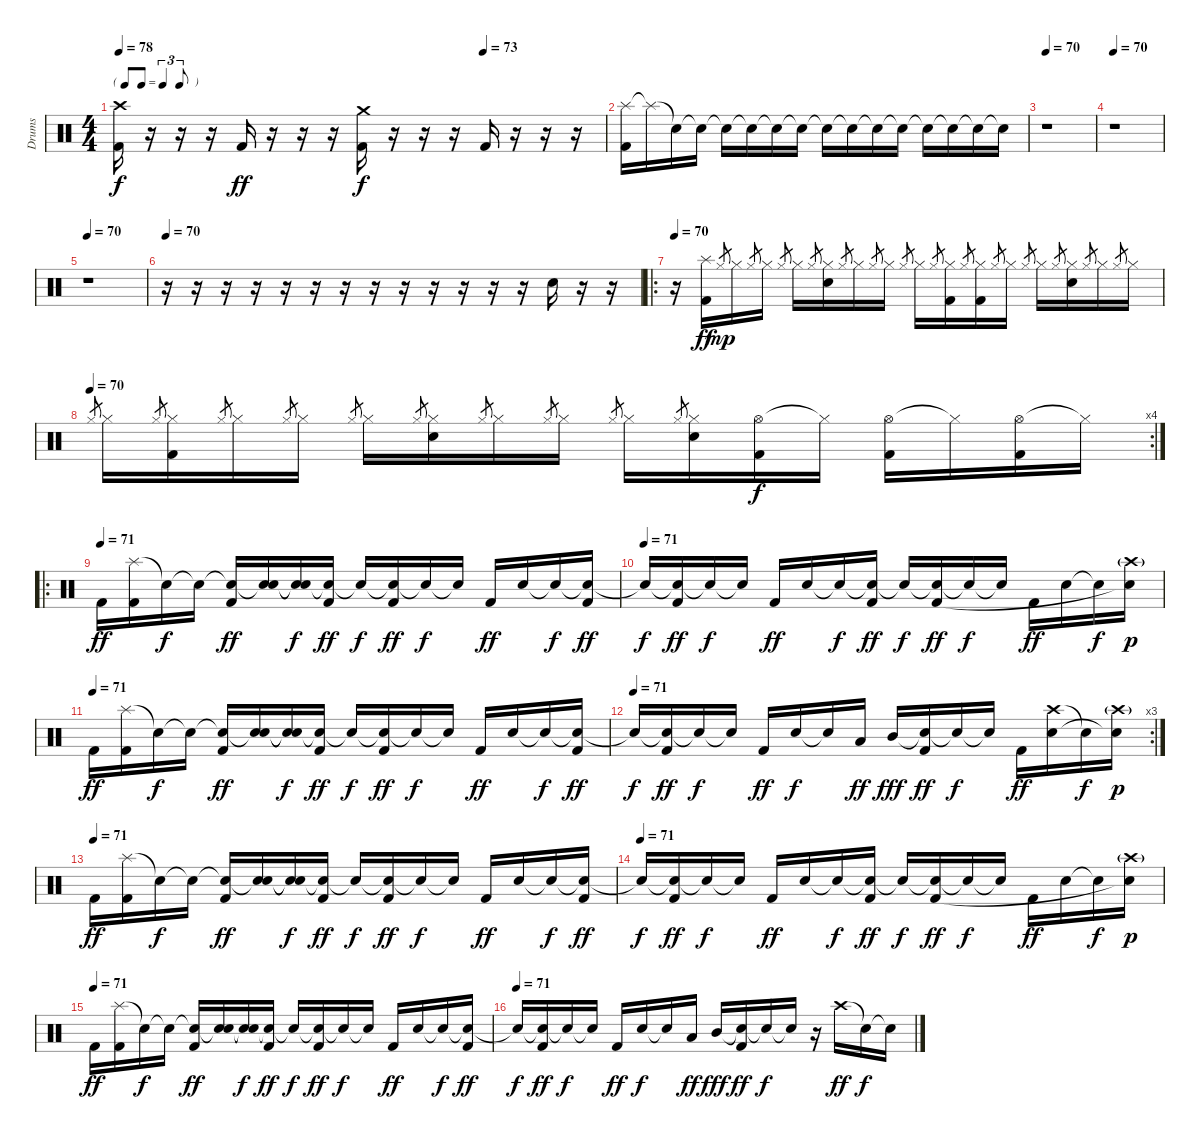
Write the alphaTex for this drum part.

\track ("Drums" "Drums") {instrument percussion}
\staff {score}
\articulation defaults
\ts (4 4)
\tf triplet8th
\tempo 78
\tempo (73 0.75)
\clef neutral
\ks c
("Crash high (hit)" "Kick (hit) 2").16{dy f} r.16 r.16 r.16 "Kick (hit) 2".16{dy ff} r.16 r.16 r.16 ("Crash medium (hit)" "Kick (hit) 2").16{dy f} r.16 r.16 r.16 "Kick (hit) 2".16 r.16 r.16 r.16 |
("Splash (hit)" "Kick (hit) 2").16 "Splash (hit)"{t}.16 "Snare (hit)"{t}.16 "Snare (hit)"{t}.16 "Snare (hit)"{t}.16 "Snare (hit)"{t}.16 "Snare (hit)"{t}.16 "Snare (hit)"{t}.16 "Snare (hit)"{t}.16 "Snare (hit)"{t}.16 "Snare (hit)"{t}.16 "Snare (hit)"{t}.16 "Snare (hit)"{t}.16 "Snare (hit)"{t}.16 "Snare (hit)"{t}.16 "Snare (hit)"{t}.16 |
\tempo 70
r.1 |
\tempo 70
r.1 |
\tempo 70
r.1 |
\tempo 70
r.16 r.16 r.16 r.16 r.16 r.16 r.16 r.16 r.16 r.16 r.16 r.16 r.16 "Electric Snare (hit)".16 r.16 r.16 |
\ro
\tempo 70
r.16 ("Splash (hit)" "Kick (hit) 2").16{dy ff} "Hi-Hat (closed)".8{gr dy mp} "Hi-Hat (closed)".16 "Hi-Hat (closed)".8{gr} "Hi-Hat (closed)".16 "Hi-Hat (closed)".8{gr} "Hi-Hat (closed)".16 "Hi-Hat (closed)".8{gr} ("Hi-Hat (closed)" "Electric Snare (hit)").16 "Hi-Hat (closed)".8{gr} "Hi-Hat (closed)".16 "Hi-Hat (closed)".8{gr} "Hi-Hat (closed)".16 "Hi-Hat (closed)".8{gr} "Hi-Hat (closed)".16 "Hi-Hat (closed)".8{gr} ("Hi-Hat (closed)" "Kick (hit) 2").16 "Hi-Hat (closed)".8{gr} ("Hi-Hat (closed)" "Kick (hit) 2").16 "Hi-Hat (closed)".8{gr} "Hi-Hat (closed)".16 "Hi-Hat (closed)".8{gr} "Hi-Hat (closed)".16 "Hi-Hat (closed)".8{gr} ("Hi-Hat (closed)" "Electric Snare (hit)").16 "Hi-Hat (closed)".8{gr} "Hi-Hat (closed)".16 "Hi-Hat (closed)".8{gr} "Hi-Hat (closed)".16 |
\rc 4
\tempo (70)
"Hi-Hat (closed)".8{gr} "Hi-Hat (closed)".16 "Hi-Hat (closed)".8{gr} ("Hi-Hat (closed)" "Kick (hit) 2").16 "Hi-Hat (closed)".8{gr} "Hi-Hat (closed)".16 "Hi-Hat (closed)".8{gr} "Hi-Hat (closed)".16 "Hi-Hat (closed)".8{gr} "Hi-Hat (closed)".16 "Hi-Hat (closed)".8{gr} ("Hi-Hat (closed)" "Electric Snare (hit)").16 "Hi-Hat (closed)".8{gr} "Hi-Hat (closed)".16 "Hi-Hat (closed)".8{gr} "Hi-Hat (closed)".16 "Hi-Hat (closed)".8{gr} "Hi-Hat (closed)".16 "Hi-Hat (closed)".8{gr} ("Hi-Hat (closed)" "Electric Snare (hit)").16 ("Hi-Hat (open)" "Kick (hit) 2").16{dy f} "Hi-Hat (closed)"{t}.16 ("Hi-Hat (open)" "Kick (hit) 2").16 "Hi-Hat (closed)"{t}.16 ("Hi-Hat (open)" "Kick (hit) 2").16 "Hi-Hat (closed)"{t}.16 |
\ro
\tempo (71)
"Kick (hit) 2".16{dy ff volume 16} ("Splash (hit)" "Kick (hit) 2").16 "Snare (hit)"{t}.16{dy f} "Snare (hit)"{t}.16 ("Snare (hit)"{t} "Kick (hit) 2").16{dy ff} ("Snare (hit)"{t} "Electric Snare (hit)").16 ("Snare (hit)"{t} "Snare (hit)"{t}).16{dy f} ("Snare (hit)"{t} "Kick (hit) 2").16{dy ff} "Snare (hit)"{t}.16{dy f} ("Snare (hit)"{t} "Kick (hit) 2").16{dy ff} "Snare (hit)"{t}.16{dy f} "Snare (hit)"{t}.16 "Kick (hit) 2".16{dy ff} "Electric Snare (hit)".16 "Snare (hit)"{t}.16{dy f} ("Snare (hit)"{t} "Kick (hit) 2").16{dy ff} |
\tempo (71)
"Snare (hit)"{t}.16{dy f} ("Snare (hit)"{t} "Kick (hit) 2").16{dy ff} "Snare (hit)"{t}.16{dy f} "Snare (hit)"{t}.16 "Kick (hit) 2".16{dy ff} "Electric Snare (hit)".16 "Snare (hit)"{t}.16{dy f} ("Snare (hit)"{t} "Kick (hit) 2").16{dy ff} "Snare (hit)"{t}.16{dy f} ("Snare (hit)"{t} "Kick (hit) 2").16{dy ff} "Snare (hit)"{t}.16{dy f} "Snare (hit)"{t}.16 "Kick (hit) 2".16{dy ff} "Electric Snare (hit)".16 "Snare (hit)"{t}.16{dy f} ("Crash high (hit)"{g} "Snare (hit)"{t}).16{dy p} |
\tempo (71)
"Kick (hit) 2".16{dy ff} ("Splash (hit)" "Kick (hit) 2").16 "Snare (hit)"{t}.16{dy f} "Snare (hit)"{t}.16 ("Snare (hit)"{t} "Kick (hit) 2").16{dy ff} ("Snare (hit)"{t} "Electric Snare (hit)").16 ("Snare (hit)"{t} "Snare (hit)"{t}).16{dy f} ("Snare (hit)"{t} "Kick (hit) 2").16{dy ff} "Snare (hit)"{t}.16{dy f} ("Snare (hit)"{t} "Kick (hit) 2").16{dy ff} "Snare (hit)"{t}.16{dy f} "Snare (hit)"{t}.16 "Kick (hit) 2".16{dy ff} "Electric Snare (hit)".16 "Snare (hit)"{t}.16{dy f} ("Snare (hit)"{t} "Kick (hit) 2").16{dy ff} |
\rc 3
\tempo (71)
"Snare (hit)"{t}.16{dy f} ("Snare (hit)"{t} "Kick (hit) 2").16{dy ff} "Snare (hit)"{t}.16{dy f} "Snare (hit)"{t}.16 "Kick (hit) 2".16{dy ff} "Electric Snare (hit)".16{dy f} "Snare (hit)"{t}.16 "Low Tom (hit)".16{dy ff} "Mid Tom (hit)".16{dy fff} ("Snare (hit)"{t} "Kick (hit) 2").16{dy ff} "Snare (hit)"{t}.16{dy f} "Snare (hit)"{t}.16 "Kick (hit) 2".16{dy ff} ("Crash high (hit)" "Electric Snare (hit)").16 "Snare (hit)"{t}.16{dy f} ("Crash high (hit)"{g} "Snare (hit)"{t}).16{dy p} |
\tempo (71)
"Kick (hit) 2".16{dy ff volume 16} ("Splash (hit)" "Kick (hit) 2").16 "Snare (hit)"{t}.16{dy f} "Snare (hit)"{t}.16 ("Snare (hit)"{t} "Kick (hit) 2").16{dy ff} ("Snare (hit)"{t} "Electric Snare (hit)").16 ("Snare (hit)"{t} "Snare (hit)"{t}).16{dy f} ("Snare (hit)"{t} "Kick (hit) 2").16{dy ff} "Snare (hit)"{t}.16{dy f} ("Snare (hit)"{t} "Kick (hit) 2").16{dy ff} "Snare (hit)"{t}.16{dy f} "Snare (hit)"{t}.16 "Kick (hit) 2".16{dy ff} "Electric Snare (hit)".16 "Snare (hit)"{t}.16{dy f} ("Snare (hit)"{t} "Kick (hit) 2").16{dy ff} |
\tempo (71)
"Snare (hit)"{t}.16{dy f} ("Snare (hit)"{t} "Kick (hit) 2").16{dy ff} "Snare (hit)"{t}.16{dy f} "Snare (hit)"{t}.16 "Kick (hit) 2".16{dy ff} "Electric Snare (hit)".16 "Snare (hit)"{t}.16{dy f} ("Snare (hit)"{t} "Kick (hit) 2").16{dy ff} "Snare (hit)"{t}.16{dy f} ("Snare (hit)"{t} "Kick (hit) 2").16{dy ff} "Snare (hit)"{t}.16{dy f} "Snare (hit)"{t}.16 "Kick (hit) 2".16{dy ff} "Electric Snare (hit)".16 "Snare (hit)"{t}.16{dy f} ("Crash high (hit)"{g} "Snare (hit)"{t}).16{dy p} |
\tempo (71)
"Kick (hit) 2".16{dy ff} ("Splash (hit)" "Kick (hit) 2").16 "Snare (hit)"{t}.16{dy f} "Snare (hit)"{t}.16 ("Snare (hit)"{t} "Kick (hit) 2").16{dy ff} ("Snare (hit)"{t} "Electric Snare (hit)").16 ("Snare (hit)"{t} "Snare (hit)"{t}).16{dy f} ("Snare (hit)"{t} "Kick (hit) 2").16{dy ff} "Snare (hit)"{t}.16{dy f} ("Snare (hit)"{t} "Kick (hit) 2").16{dy ff} "Snare (hit)"{t}.16{dy f} "Snare (hit)"{t}.16 "Kick (hit) 2".16{dy ff} "Electric Snare (hit)".16 "Snare (hit)"{t}.16{dy f} ("Snare (hit)"{t} "Kick (hit) 2").16{dy ff} |
\tempo (71)
"Snare (hit)"{t}.16{dy f} ("Snare (hit)"{t} "Kick (hit) 2").16{dy ff} "Snare (hit)"{t}.16{dy f} "Snare (hit)"{t}.16 "Kick (hit) 2".16{dy ff} "Electric Snare (hit)".16{dy f} "Snare (hit)"{t}.16 "Low Tom (hit)".16{dy ff} "Mid Tom (hit)".16{dy fff} ("Snare (hit)"{t} "Kick (hit) 2").16{dy ff} "Snare (hit)"{t}.16{dy f} "Snare (hit)"{t}.16 r.16 "Crash high (hit)".16{dy ff} "Snare (hit)"{t}.16{dy f} "Snare (hit)"{t}.16
